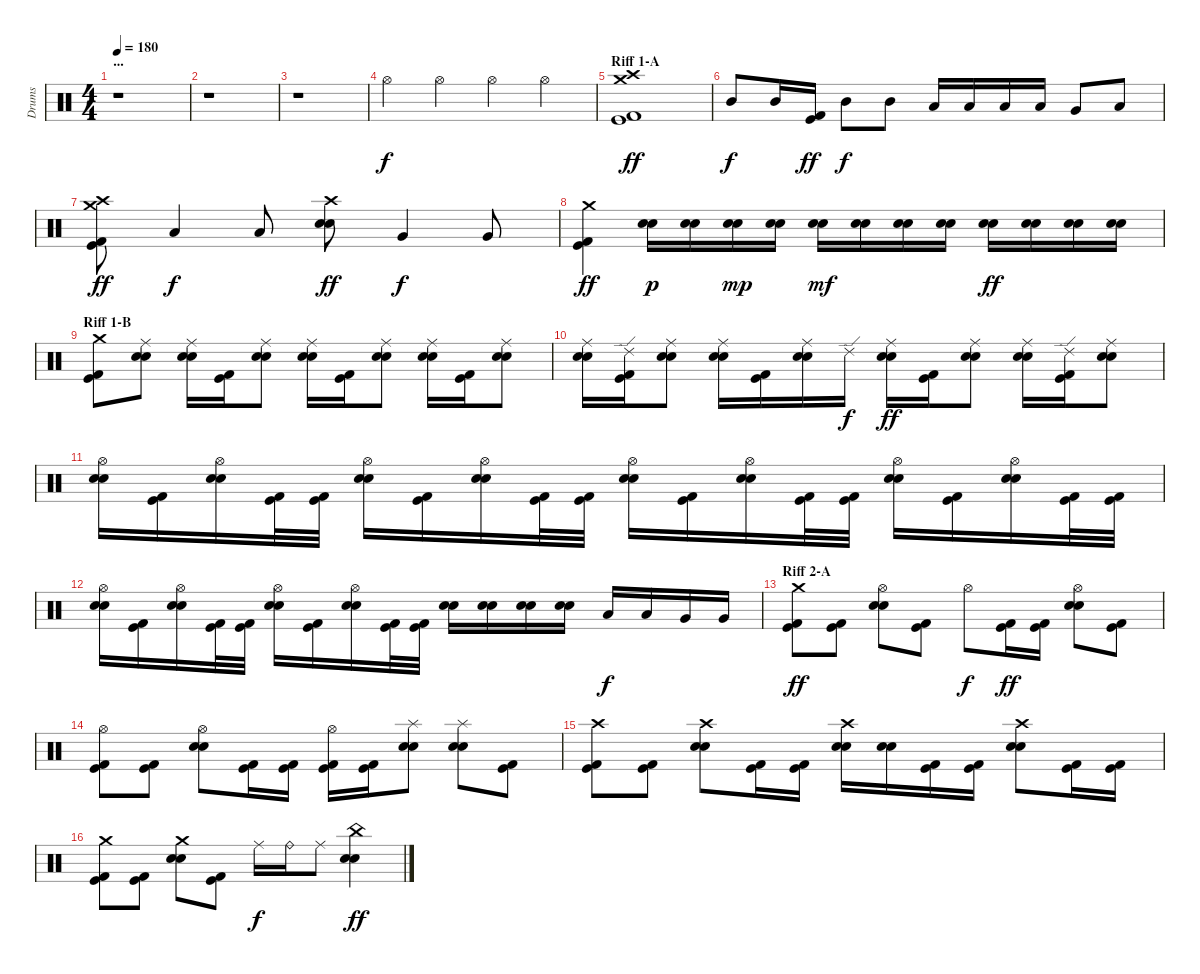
\track ("Drums" "Drums") {instrument percussion}
\staff {score}
\articulation defaults
\ts (4 4)
\section ("" "...")
\tempo 180
\clef neutral
\ks c
r.1{dy f} |
r.1 |
r.1 |
"Hi-Hat (open)".4 "Hi-Hat (open)".4 "Hi-Hat (open)".4 "Hi-Hat (open)".4 |
\section ("" "Riff 1-A")
("Kick (hit)" "Kick (hit) 2" "Crash high (hit)" "Crash medium (hit)").1{dy ff} |
"Mid Tom (hit)".8{dy f} "Mid Tom (hit)".16 ("Kick (hit)" "Kick (hit) 2").16{dy ff} "Mid Tom (hit)".8{dy f} "Mid Tom (hit)".8 "Low Tom (hit)".16 "Low Tom (hit)".16 "Low Tom (hit)".16 "Low Tom (hit)".16 "Very Low Tom (hit)".8 "Low Floor Tom (hit)".8 |
("Kick (hit)" "Kick (hit) 2" "Crash high (hit)" "Crash medium (hit)").8{dy ff} "Low Tom (hit)".4{dy f} "Low Tom (hit)".8 ("Electric Snare (hit)" "Electric Snare (hit)" "Crash high (hit)").8{dy ff} "Very Low Tom (hit)".4{dy f} "Very Low Tom (hit)".8 |
("Kick (hit)" "Kick (hit) 2" "Crash medium (hit)").4{dy ff} ("Electric Snare (hit)" "Electric Snare (hit)").16{dy p} ("Electric Snare (hit)" "Electric Snare (hit)").16 ("Electric Snare (hit)" "Electric Snare (hit)").16{dy mp} ("Electric Snare (hit)" "Electric Snare (hit)").16 ("Electric Snare (hit)" "Electric Snare (hit)").16{dy mf} ("Electric Snare (hit)" "Electric Snare (hit)").16 ("Electric Snare (hit)" "Electric Snare (hit)").16 ("Electric Snare (hit)" "Electric Snare (hit)").16 ("Electric Snare (hit)" "Electric Snare (hit)").16{dy ff} ("Electric Snare (hit)" "Electric Snare (hit)").16 ("Electric Snare (hit)" "Electric Snare (hit)").16 ("Electric Snare (hit)" "Electric Snare (hit)").16 |
\section ("" "Riff 1-B")
("Kick (hit)" "Kick (hit) 2" "Crash medium (hit)").8 ("Electric Snare (hit)" "Electric Snare (hit)" "Ride (middle)").8 ("Electric Snare (hit)" "Electric Snare (hit)" "Ride (middle)").16 ("Kick (hit)" "Kick (hit) 2").16 ("Electric Snare (hit)" "Electric Snare (hit)" "Ride (middle)").8 ("Electric Snare (hit)" "Electric Snare (hit)" "Ride (middle)").16 ("Kick (hit)" "Kick (hit) 2").16 ("Electric Snare (hit)" "Electric Snare (hit)" "Ride (middle)").8 ("Electric Snare (hit)" "Electric Snare (hit)" "Ride (middle)").16 ("Kick (hit)" "Kick (hit) 2").16 ("Electric Snare (hit)" "Electric Snare (hit)" "Ride (middle)").8 |
("Electric Snare (hit)" "Electric Snare (hit)" "Ride (middle)").16 ("Kick (hit)" "Kick (hit) 2" "Ride (edge) 2").16 ("Electric Snare (hit)" "Electric Snare (hit)" "Ride (middle)").8 ("Electric Snare (hit)" "Electric Snare (hit)" "Ride (middle)").16 ("Kick (hit)" "Kick (hit) 2").16 ("Electric Snare (hit)" "Electric Snare (hit)" "Ride (middle)").16 "Ride (edge) 2".16{dy f} ("Electric Snare (hit)" "Electric Snare (hit)" "Ride (middle)").16{dy ff} ("Kick (hit)" "Kick (hit) 2").16 ("Electric Snare (hit)" "Electric Snare (hit)" "Ride (middle)").8 ("Electric Snare (hit)" "Electric Snare (hit)" "Ride (middle)").16 ("Kick (hit)" "Kick (hit) 2" "Ride (edge) 2").16 ("Electric Snare (hit)" "Electric Snare (hit)" "Ride (middle)").8 |
("Electric Snare (hit)" "Electric Snare (hit)" "Hi-Hat (open)").16 ("Kick (hit)" "Kick (hit) 2").16 ("Electric Snare (hit)" "Electric Snare (hit)" "Hi-Hat (open)").16 ("Kick (hit)" "Kick (hit) 2").32 ("Kick (hit)" "Kick (hit) 2").32 ("Electric Snare (hit)" "Electric Snare (hit)" "Hi-Hat (open)").16 ("Kick (hit)" "Kick (hit) 2").16 ("Electric Snare (hit)" "Electric Snare (hit)" "Hi-Hat (open)").16 ("Kick (hit)" "Kick (hit) 2").32 ("Kick (hit)" "Kick (hit) 2").32 ("Electric Snare (hit)" "Electric Snare (hit)" "Hi-Hat (open)").16 ("Kick (hit)" "Kick (hit) 2").16 ("Electric Snare (hit)" "Electric Snare (hit)" "Hi-Hat (open)").16 ("Kick (hit)" "Kick (hit) 2").32 ("Kick (hit)" "Kick (hit) 2").32 ("Electric Snare (hit)" "Electric Snare (hit)" "Hi-Hat (open)").16 ("Kick (hit)" "Kick (hit) 2").16 ("Electric Snare (hit)" "Electric Snare (hit)" "Hi-Hat (open)").16 ("Kick (hit)" "Kick (hit) 2").32 ("Kick (hit)" "Kick (hit) 2").32 |
("Electric Snare (hit)" "Electric Snare (hit)" "Hi-Hat (open)").16 ("Kick (hit)" "Kick (hit) 2").16 ("Electric Snare (hit)" "Electric Snare (hit)" "Hi-Hat (open)").16 ("Kick (hit)" "Kick (hit) 2").32 ("Kick (hit)" "Kick (hit) 2").32 ("Electric Snare (hit)" "Electric Snare (hit)" "Hi-Hat (open)").16 ("Kick (hit)" "Kick (hit) 2").16 ("Electric Snare (hit)" "Electric Snare (hit)" "Hi-Hat (open)").16 ("Kick (hit)" "Kick (hit) 2").32 ("Kick (hit)" "Kick (hit) 2").32 ("Electric Snare (hit)" "Electric Snare (hit)").16 ("Electric Snare (hit)" "Electric Snare (hit)").16 ("Electric Snare (hit)" "Electric Snare (hit)").16 ("Electric Snare (hit)" "Electric Snare (hit)").16 "Low Tom (hit)".16{dy f} "Low Tom (hit)".16 "Very Low Tom (hit)".16 "Very Low Tom (hit)".16 |
\section ("" "Riff 2-A")
("Kick (hit)" "Kick (hit) 2" "Crash medium (hit)").8{dy ff} ("Kick (hit)" "Kick (hit) 2").8 ("Electric Snare (hit)" "Electric Snare (hit)" "Hi-Hat (open)").8 ("Kick (hit)" "Kick (hit) 2").8 "Hi-Hat (open)".8{dy f} ("Kick (hit)" "Kick (hit) 2").16{dy ff} ("Kick (hit)" "Kick (hit) 2").16 ("Electric Snare (hit)" "Electric Snare (hit)" "Hi-Hat (open)").8 ("Kick (hit)" "Kick (hit) 2").8 |
("Kick (hit)" "Kick (hit) 2" "Hi-Hat (open)").8 ("Kick (hit)" "Kick (hit) 2").8 ("Electric Snare (hit)" "Electric Snare (hit)" "Hi-Hat (open)").8 ("Kick (hit)" "Kick (hit) 2").16 ("Kick (hit)" "Kick (hit) 2").16 ("Kick (hit)" "Kick (hit) 2" "Hi-Hat (open)").16 ("Kick (hit)" "Kick (hit) 2").16 ("Electric Snare (hit)" "Electric Snare (hit)" "Splash (hit)").8 ("Electric Snare (hit)" "Electric Snare (hit)" "Splash (hit)").8 ("Kick (hit)" "Kick (hit) 2").8 |
("Kick (hit)" "Kick (hit) 2" "Crash high (hit)").8 ("Kick (hit)" "Kick (hit) 2").8 ("Electric Snare (hit)" "Electric Snare (hit)" "Crash high (hit)").8 ("Kick (hit)" "Kick (hit) 2").16 ("Kick (hit)" "Kick (hit) 2").16 ("Electric Snare (hit)" "Electric Snare (hit)" "Crash high (hit)").16 ("Electric Snare (hit)" "Electric Snare (hit)").16 ("Kick (hit)" "Kick (hit) 2").16 ("Kick (hit)" "Kick (hit) 2").16 ("Electric Snare (hit)" "Electric Snare (hit)" "Crash high (hit)").8 ("Kick (hit)" "Kick (hit) 2").16 ("Kick (hit)" "Kick (hit) 2").16 |
("Kick (hit)" "Kick (hit) 2" "Crash medium (hit)").8 ("Kick (hit)" "Kick (hit) 2").8 ("Electric Snare (hit)" "Electric Snare (hit)" "Crash medium (hit)").8 ("Kick (hit)" "Kick (hit) 2").8 "Ride (middle)".16{dy f} "Ride (bell)".16 "Ride (middle)".8 ("Electric Snare (hit)" "Electric Snare (hit)" "China (hit)").4{dy ff}
